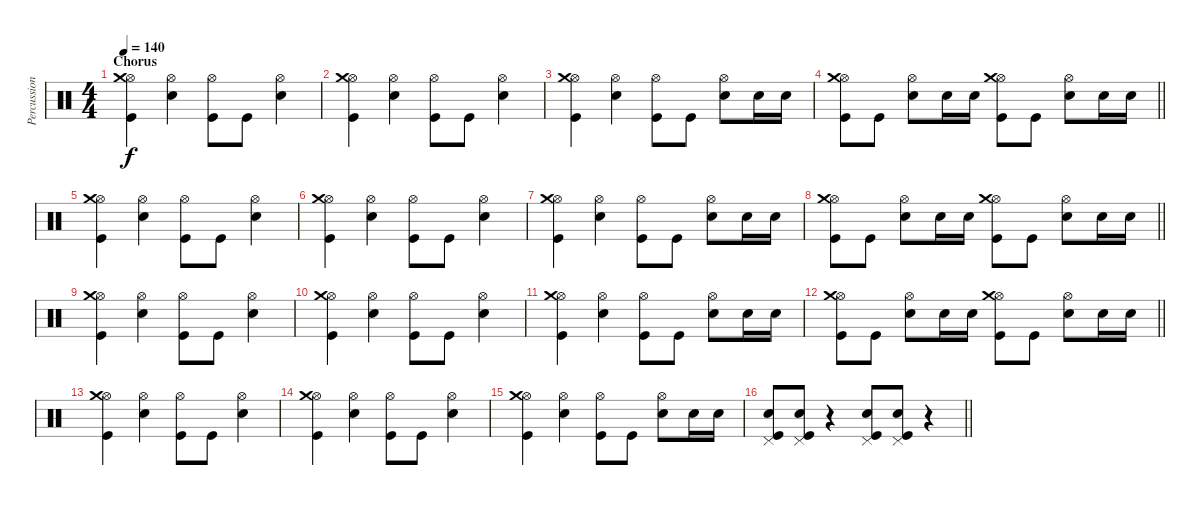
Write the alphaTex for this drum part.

\track ("Percussion" "Percussion") {instrument percussion}
\staff {score}
\articulation defaults
\ts (4 4)
\section ("" "Chorus")
\tempo 140
\clef neutral
\ks c
("Hi-Hat (open)" "Kick (hit)" "Crash medium (hit)").4{dy f} ("Hi-Hat (open)" "Electric Snare (hit)").4 ("Hi-Hat (open)" "Kick (hit)").8 "Kick (hit)".8 ("Hi-Hat (open)" "Electric Snare (hit)").4 |
("Hi-Hat (open)" "Kick (hit)" "Crash medium (hit)").4 ("Hi-Hat (open)" "Electric Snare (hit)").4 ("Hi-Hat (open)" "Kick (hit)").8 "Kick (hit)".8 ("Hi-Hat (open)" "Electric Snare (hit)").4 |
("Hi-Hat (open)" "Kick (hit)" "Crash medium (hit)").4 ("Hi-Hat (open)" "Electric Snare (hit)").4 ("Hi-Hat (open)" "Kick (hit)").8 "Kick (hit)".8 ("Hi-Hat (open)" "Electric Snare (hit)").8 "Electric Snare (hit)".16 "Electric Snare (hit)".16 |
\barLineRight lightlight
("Hi-Hat (open)" "Kick (hit)" "Crash medium (hit)").8 "Kick (hit)".8 ("Hi-Hat (open)" "Electric Snare (hit)").8 "Electric Snare (hit)".16 "Electric Snare (hit)".16 ("Hi-Hat (open)" "Kick (hit)" "Crash medium (hit)").8 "Kick (hit)".8 ("Hi-Hat (open)" "Electric Snare (hit)").8 "Electric Snare (hit)".16 "Electric Snare (hit)".16 |
("Hi-Hat (open)" "Kick (hit)" "Crash medium (hit)").4 ("Hi-Hat (open)" "Electric Snare (hit)").4 ("Hi-Hat (open)" "Kick (hit)").8 "Kick (hit)".8 ("Hi-Hat (open)" "Electric Snare (hit)").4 |
("Hi-Hat (open)" "Kick (hit)" "Crash medium (hit)").4 ("Hi-Hat (open)" "Electric Snare (hit)").4 ("Hi-Hat (open)" "Kick (hit)").8 "Kick (hit)".8 ("Hi-Hat (open)" "Electric Snare (hit)").4 |
("Hi-Hat (open)" "Kick (hit)" "Crash medium (hit)").4 ("Hi-Hat (open)" "Electric Snare (hit)").4 ("Hi-Hat (open)" "Kick (hit)").8 "Kick (hit)".8 ("Hi-Hat (open)" "Electric Snare (hit)").8 "Electric Snare (hit)".16 "Electric Snare (hit)".16 |
\barLineRight lightlight
("Hi-Hat (open)" "Kick (hit)" "Crash medium (hit)").8 "Kick (hit)".8 ("Hi-Hat (open)" "Electric Snare (hit)").8 "Electric Snare (hit)".16 "Electric Snare (hit)".16 ("Hi-Hat (open)" "Kick (hit)" "Crash medium (hit)").8 "Kick (hit)".8 ("Hi-Hat (open)" "Electric Snare (hit)").8 "Electric Snare (hit)".16 "Electric Snare (hit)".16 |
("Hi-Hat (open)" "Kick (hit)" "Crash medium (hit)").4 ("Hi-Hat (open)" "Electric Snare (hit)").4 ("Hi-Hat (open)" "Kick (hit)").8 "Kick (hit)".8 ("Hi-Hat (open)" "Electric Snare (hit)").4 |
("Hi-Hat (open)" "Kick (hit)" "Crash medium (hit)").4 ("Hi-Hat (open)" "Electric Snare (hit)").4 ("Hi-Hat (open)" "Kick (hit)").8 "Kick (hit)".8 ("Hi-Hat (open)" "Electric Snare (hit)").4 |
("Hi-Hat (open)" "Kick (hit)" "Crash medium (hit)").4 ("Hi-Hat (open)" "Electric Snare (hit)").4 ("Hi-Hat (open)" "Kick (hit)").8 "Kick (hit)".8 ("Hi-Hat (open)" "Electric Snare (hit)").8 "Electric Snare (hit)".16 "Electric Snare (hit)".16 |
\barLineRight lightlight
("Hi-Hat (open)" "Kick (hit)" "Crash medium (hit)").8 "Kick (hit)".8 ("Hi-Hat (open)" "Electric Snare (hit)").8 "Electric Snare (hit)".16 "Electric Snare (hit)".16 ("Hi-Hat (open)" "Kick (hit)" "Crash medium (hit)").8 "Kick (hit)".8 ("Hi-Hat (open)" "Electric Snare (hit)").8 "Electric Snare (hit)".16 "Electric Snare (hit)".16 |
("Hi-Hat (open)" "Kick (hit)" "Crash medium (hit)").4 ("Hi-Hat (open)" "Electric Snare (hit)").4 ("Hi-Hat (open)" "Kick (hit)").8 "Kick (hit)".8 ("Hi-Hat (open)" "Electric Snare (hit)").4 |
("Hi-Hat (open)" "Kick (hit)" "Crash medium (hit)").4 ("Hi-Hat (open)" "Electric Snare (hit)").4 ("Hi-Hat (open)" "Kick (hit)").8 "Kick (hit)".8 ("Hi-Hat (open)" "Electric Snare (hit)").4 |
("Hi-Hat (open)" "Kick (hit)" "Crash medium (hit)").4 ("Hi-Hat (open)" "Electric Snare (hit)").4 ("Hi-Hat (open)" "Kick (hit)").8 "Kick (hit)".8 ("Hi-Hat (open)" "Electric Snare (hit)").8 "Electric Snare (hit)".16 "Electric Snare (hit)".16 |
\barLineRight lightlight
("Pedal Hi-Hat (hit)" "Electric Snare (hit)" "Kick (hit)").8 ("Pedal Hi-Hat (hit)" "Electric Snare (hit)" "Kick (hit)").8 r.4 ("Pedal Hi-Hat (hit)" "Electric Snare (hit)" "Kick (hit)").8 ("Pedal Hi-Hat (hit)" "Electric Snare (hit)" "Kick (hit)").8 r.4
